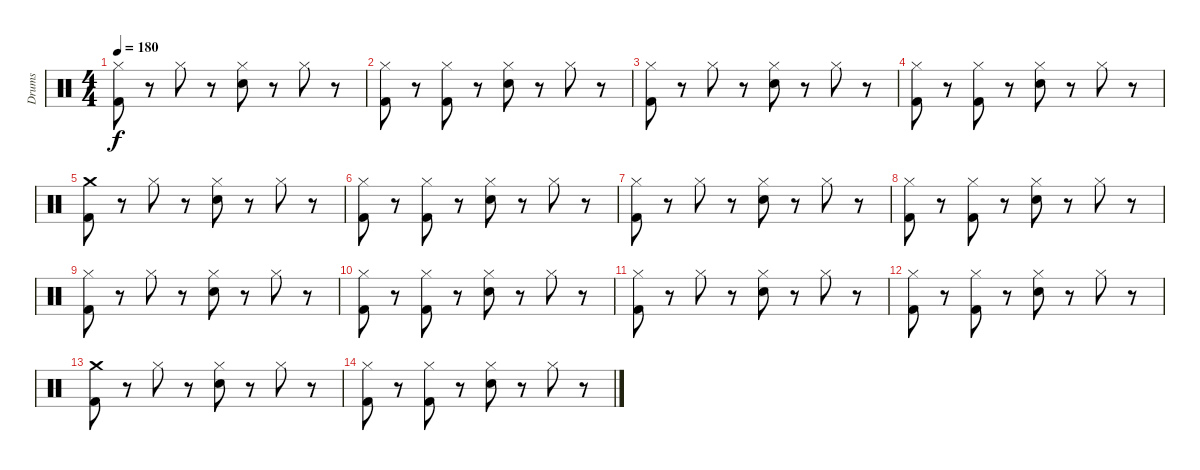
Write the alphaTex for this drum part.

\track ("Drums" "Drums") {instrument percussion}
\staff {score}
\articulation defaults
\ts (4 4)
\tempo 180
\clef neutral
\ks c
("Hi-Hat (closed)" "Kick (hit) 2").8{dy f} r.8 "Hi-Hat (closed)".8 r.8 ("Hi-Hat (closed)" "Electric Snare (hit)").8 r.8 "Hi-Hat (closed)".8 r.8 |
("Hi-Hat (closed)" "Kick (hit) 2").8 r.8 ("Hi-Hat (closed)" "Kick (hit) 2").8 r.8 ("Hi-Hat (closed)" "Electric Snare (hit)").8 r.8 "Hi-Hat (closed)".8 r.8 |
("Hi-Hat (closed)" "Kick (hit) 2").8 r.8 "Hi-Hat (closed)".8 r.8 ("Hi-Hat (closed)" "Electric Snare (hit)").8 r.8 "Hi-Hat (closed)".8 r.8 |
("Hi-Hat (closed)" "Kick (hit) 2").8 r.8 ("Hi-Hat (closed)" "Kick (hit) 2").8 r.8 ("Hi-Hat (closed)" "Electric Snare (hit)").8 r.8 "Hi-Hat (closed)".8 r.8 |
("Crash medium (hit)" "Kick (hit) 2").8 r.8 "Hi-Hat (closed)".8 r.8 ("Hi-Hat (closed)" "Electric Snare (hit)").8 r.8 "Hi-Hat (closed)".8 r.8 |
("Hi-Hat (closed)" "Kick (hit) 2").8 r.8 ("Hi-Hat (closed)" "Kick (hit) 2").8 r.8 ("Hi-Hat (closed)" "Electric Snare (hit)").8 r.8 "Hi-Hat (closed)".8 r.8 |
("Hi-Hat (closed)" "Kick (hit) 2").8 r.8 "Hi-Hat (closed)".8 r.8 ("Hi-Hat (closed)" "Electric Snare (hit)").8 r.8 "Hi-Hat (closed)".8 r.8 |
("Hi-Hat (closed)" "Kick (hit) 2").8 r.8 ("Hi-Hat (closed)" "Kick (hit) 2").8 r.8 ("Hi-Hat (closed)" "Electric Snare (hit)").8 r.8 "Hi-Hat (closed)".8 r.8 |
("Hi-Hat (closed)" "Kick (hit) 2").8 r.8 "Hi-Hat (closed)".8 r.8 ("Hi-Hat (closed)" "Electric Snare (hit)").8 r.8 "Hi-Hat (closed)".8 r.8 |
("Hi-Hat (closed)" "Kick (hit) 2").8 r.8 ("Hi-Hat (closed)" "Kick (hit) 2").8 r.8 ("Hi-Hat (closed)" "Electric Snare (hit)").8 r.8 "Hi-Hat (closed)".8 r.8 |
("Hi-Hat (closed)" "Kick (hit) 2").8 r.8 "Hi-Hat (closed)".8 r.8 ("Hi-Hat (closed)" "Electric Snare (hit)").8 r.8 "Hi-Hat (closed)".8 r.8 |
("Hi-Hat (closed)" "Kick (hit) 2").8 r.8 ("Hi-Hat (closed)" "Kick (hit) 2").8 r.8 ("Hi-Hat (closed)" "Electric Snare (hit)").8 r.8 "Hi-Hat (closed)".8 r.8 |
("Crash medium (hit)" "Kick (hit) 2").8 r.8 "Hi-Hat (closed)".8 r.8 ("Hi-Hat (closed)" "Electric Snare (hit)").8 r.8 "Hi-Hat (closed)".8 r.8 |
("Hi-Hat (closed)" "Kick (hit) 2").8 r.8 ("Hi-Hat (closed)" "Kick (hit) 2").8 r.8 ("Hi-Hat (closed)" "Electric Snare (hit)").8 r.8 "Hi-Hat (closed)".8 r.8
